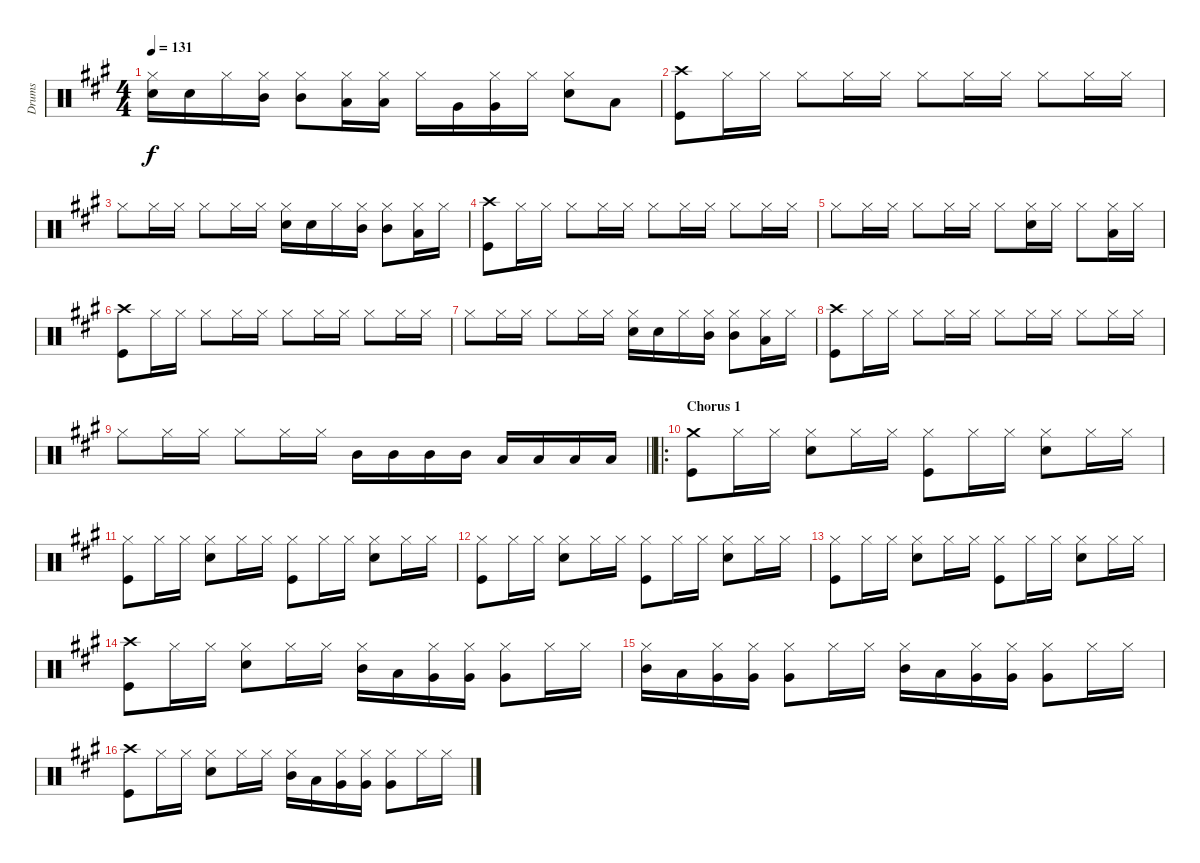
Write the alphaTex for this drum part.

\track ("Drums" "Drums") {instrument percussion}
\staff {score}
\articulation defaults
\ts (4 4)
\tempo 131
\clef neutral
\ks a
("Hi-Hat (closed)" "Snare (hit) 2").16{dy f} "Snare (hit) 2".16 "Hi-Hat (closed)".16 ("Hi-Hat (closed)" "Mid Tom (hit)").16 ("Hi-Hat (closed)" "Mid Tom (hit)").8 ("Hi-Hat (closed)" "Low Tom (hit)").16 ("Hi-Hat (closed)" "Low Tom (hit)").16 "Hi-Hat (closed)".16 "Very Low Tom (hit)".16 ("Hi-Hat (closed)" "Very Low Tom (hit)").16 "Hi-Hat (closed)".16 ("Hi-Hat (closed)" "Snare (hit) 2").8 "Low Floor Tom (hit)".8 |
("Crash high (hit)" "Kick (hit)").8 "Hi-Hat (closed)".16 "Hi-Hat (closed)".16 "Hi-Hat (closed)".8 "Hi-Hat (closed)".16 "Hi-Hat (closed)".16 "Hi-Hat (closed)".8 "Hi-Hat (closed)".16 "Hi-Hat (closed)".16 "Hi-Hat (closed)".8 "Hi-Hat (closed)".16 "Hi-Hat (closed)".16 |
"Hi-Hat (closed)".8 "Hi-Hat (closed)".16 "Hi-Hat (closed)".16 "Hi-Hat (closed)".8 "Hi-Hat (closed)".16 "Hi-Hat (closed)".16 ("Hi-Hat (closed)" "Snare (hit) 2").16 "Snare (hit) 2".16 "Hi-Hat (closed)".16 ("Hi-Hat (closed)" "Mid Tom (hit)").16 ("Hi-Hat (closed)" "Mid Tom (hit)").8 ("Hi-Hat (closed)" "Low Tom (hit)").16 "Hi-Hat (closed)".16 |
("Crash high (hit)" "Kick (hit)").8 "Hi-Hat (closed)".16 "Hi-Hat (closed)".16 "Hi-Hat (closed)".8 "Hi-Hat (closed)".16 "Hi-Hat (closed)".16 "Hi-Hat (closed)".8 "Hi-Hat (closed)".16 "Hi-Hat (closed)".16 "Hi-Hat (closed)".8 "Hi-Hat (closed)".16 "Hi-Hat (closed)".16 |
"Hi-Hat (closed)".8 "Hi-Hat (closed)".16 "Hi-Hat (closed)".16 "Hi-Hat (closed)".8 "Hi-Hat (closed)".16 "Hi-Hat (closed)".16 "Hi-Hat (closed)".8 ("Hi-Hat (closed)" "Snare (hit) 2").16 "Hi-Hat (closed)".16 "Hi-Hat (closed)".8 ("Hi-Hat (closed)" "Low Tom (hit)").16 "Hi-Hat (closed)".16 |
("Crash high (hit)" "Kick (hit)").8 "Hi-Hat (closed)".16 "Hi-Hat (closed)".16 "Hi-Hat (closed)".8 "Hi-Hat (closed)".16 "Hi-Hat (closed)".16 "Hi-Hat (closed)".8 "Hi-Hat (closed)".16 "Hi-Hat (closed)".16 "Hi-Hat (closed)".8 "Hi-Hat (closed)".16 "Hi-Hat (closed)".16 |
"Hi-Hat (closed)".8 "Hi-Hat (closed)".16 "Hi-Hat (closed)".16 "Hi-Hat (closed)".8 "Hi-Hat (closed)".16 "Hi-Hat (closed)".16 ("Hi-Hat (closed)" "Snare (hit) 2").16 "Snare (hit) 2".16 "Hi-Hat (closed)".16 ("Hi-Hat (closed)" "Mid Tom (hit)").16 ("Hi-Hat (closed)" "Mid Tom (hit)").8 ("Hi-Hat (closed)" "Low Tom (hit)").16 "Hi-Hat (closed)".16 |
("Crash high (hit)" "Kick (hit)").8 "Hi-Hat (closed)".16 "Hi-Hat (closed)".16 "Hi-Hat (closed)".8 "Hi-Hat (closed)".16 "Hi-Hat (closed)".16 "Hi-Hat (closed)".8 "Hi-Hat (closed)".16 "Hi-Hat (closed)".16 "Hi-Hat (closed)".8 "Hi-Hat (closed)".16 "Hi-Hat (closed)".16 |
\barLineRight lightlight "Hi-Hat (closed)".8 "Hi-Hat (closed)".16 "Hi-Hat (closed)".16 "Hi-Hat (closed)".8 "Hi-Hat (closed)".16 "Hi-Hat (closed)".16 "Mid Tom (hit)".16 "Mid Tom (hit)".16 "Mid Tom (hit)".16 "Mid Tom (hit)".16 "Low Tom (hit)".16 "Low Tom (hit)".16 "Low Tom (hit)".16 "Low Tom (hit)".16
|
\ro
\section ("" "Chorus 1")
("Crash medium (hit)" "Kick (hit)").8 "Hi-Hat (closed)".16 "Hi-Hat (closed)".16 ("Hi-Hat (closed)" "Snare (hit) 2").8 "Hi-Hat (closed)".16 "Hi-Hat (closed)".16 ("Hi-Hat (closed)" "Kick (hit)").8 "Hi-Hat (closed)".16 "Hi-Hat (closed)".16 ("Hi-Hat (closed)" "Snare (hit) 2").8 "Hi-Hat (closed)".16 "Hi-Hat (closed)".16 |
("Hi-Hat (closed)" "Kick (hit)").8 "Hi-Hat (closed)".16 "Hi-Hat (closed)".16 ("Hi-Hat (closed)" "Snare (hit) 2").8 "Hi-Hat (closed)".16 "Hi-Hat (closed)".16 ("Hi-Hat (closed)" "Kick (hit)").8 "Hi-Hat (closed)".16 "Hi-Hat (closed)".16 ("Hi-Hat (closed)" "Snare (hit) 2").8 "Hi-Hat (closed)".16 "Hi-Hat (closed)".16 |
("Hi-Hat (closed)" "Kick (hit)").8 "Hi-Hat (closed)".16 "Hi-Hat (closed)".16 ("Hi-Hat (closed)" "Snare (hit) 2").8 "Hi-Hat (closed)".16 "Hi-Hat (closed)".16 ("Hi-Hat (closed)" "Kick (hit)").8 "Hi-Hat (closed)".16 "Hi-Hat (closed)".16 ("Hi-Hat (closed)" "Snare (hit) 2").8 "Hi-Hat (closed)".16 "Hi-Hat (closed)".16 |
("Hi-Hat (closed)" "Kick (hit)").8 "Hi-Hat (closed)".16 "Hi-Hat (closed)".16 ("Hi-Hat (closed)" "Snare (hit) 2").8 "Hi-Hat (closed)".16 "Hi-Hat (closed)".16 ("Hi-Hat (closed)" "Kick (hit)").8 "Hi-Hat (closed)".16 "Hi-Hat (closed)".16 ("Hi-Hat (closed)" "Snare (hit) 2").8 "Hi-Hat (closed)".16 "Hi-Hat (closed)".16 |
("Crash high (hit)" "Kick (hit)").8 "Hi-Hat (closed)".16 "Hi-Hat (closed)".16 ("Hi-Hat (closed)" "Snare (hit) 2").8 "Hi-Hat (closed)".16 "Hi-Hat (closed)".16 ("Hi-Hat (closed)" "Mid Tom (hit)").16 "Low Tom (hit)".16 ("Hi-Hat (closed)" "Very Low Tom (hit)").16 ("Hi-Hat (closed)" "Very Low Tom (hit)").16 ("Hi-Hat (closed)" "Very Low Tom (hit)").8 "Hi-Hat (closed)".16 "Hi-Hat (closed)".16 |
("Hi-Hat (closed)" "Mid Tom (hit)").16 "Low Tom (hit)".16 ("Hi-Hat (closed)" "Very Low Tom (hit)").16 ("Hi-Hat (closed)" "Very Low Tom (hit)").16 ("Hi-Hat (closed)" "Very Low Tom (hit)").8 "Hi-Hat (closed)".16 "Hi-Hat (closed)".16 ("Hi-Hat (closed)" "Mid Tom (hit)").16 "Low Tom (hit)".16 ("Hi-Hat (closed)" "Very Low Tom (hit)").16 ("Hi-Hat (closed)" "Very Low Tom (hit)").16 ("Hi-Hat (closed)" "Very Low Tom (hit)").8 "Hi-Hat (closed)".16 "Hi-Hat (closed)".16 |
("Crash high (hit)" "Kick (hit)").8 "Hi-Hat (closed)".16 "Hi-Hat (closed)".16 ("Hi-Hat (closed)" "Snare (hit) 2").8 "Hi-Hat (closed)".16 "Hi-Hat (closed)".16 ("Hi-Hat (closed)" "Mid Tom (hit)").16 "Low Tom (hit)".16 ("Hi-Hat (closed)" "Very Low Tom (hit)").16 ("Hi-Hat (closed)" "Very Low Tom (hit)").16 ("Hi-Hat (closed)" "Very Low Tom (hit)").8 "Hi-Hat (closed)".16 "Hi-Hat (closed)".16
